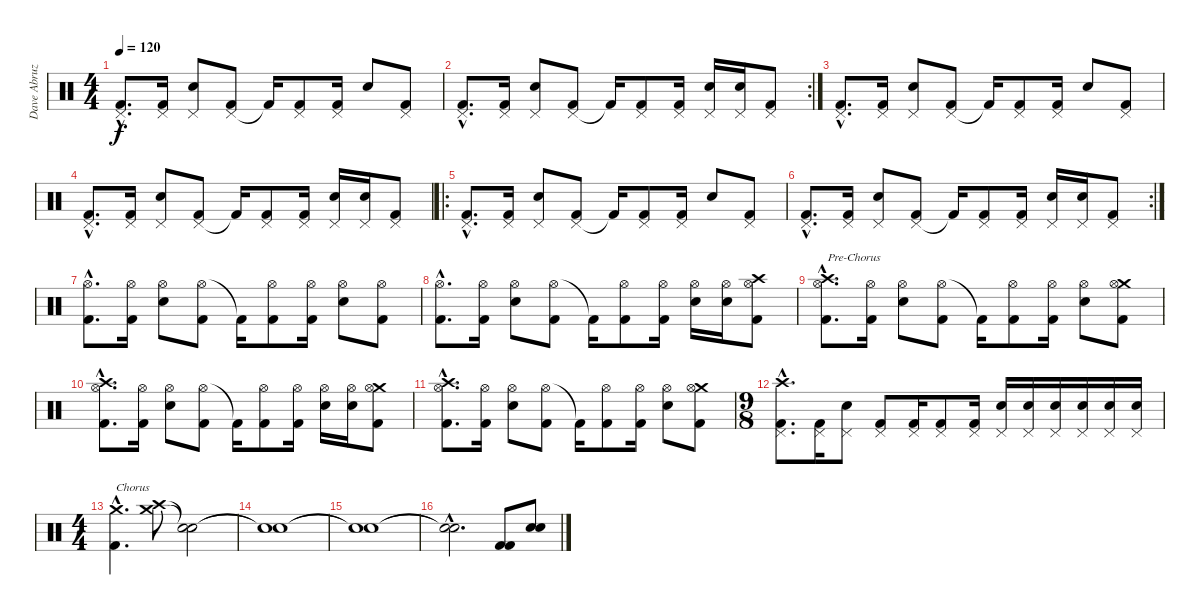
\track ("Dave Abruzzesse" "Dave Abruz") {instrument percussion}
\staff {score}
\articulation defaults
\ts (4 4)
\tempo 120
\clef neutral
\ks c
("Pedal Hi-Hat (hit)"{hac} "Kick (hit) 2"{hac}).8{d dy f} ("Pedal Hi-Hat (hit)" "Kick (hit) 2").16 ("Pedal Hi-Hat (hit)" "Snare (hit) 2").8 ("Pedal Hi-Hat (hit)" "Kick (hit) 2").8 "Kick (hit) 2"{t}.16 ("Pedal Hi-Hat (hit)" "Kick (hit) 2").8 ("Pedal Hi-Hat (hit)" "Kick (hit) 2").16 "Snare (hit) 2".8 ("Pedal Hi-Hat (hit)" "Kick (hit) 2").8 |
\rc 2
("Pedal Hi-Hat (hit)"{hac} "Kick (hit) 2"{hac}).8{d} ("Pedal Hi-Hat (hit)" "Kick (hit) 2").16 ("Pedal Hi-Hat (hit)" "Snare (hit) 2").8 ("Pedal Hi-Hat (hit)" "Kick (hit) 2").8 "Kick (hit) 2"{t}.16 ("Pedal Hi-Hat (hit)" "Kick (hit) 2").8 ("Pedal Hi-Hat (hit)" "Kick (hit) 2").16 ("Pedal Hi-Hat (hit)" "Snare (hit) 2").16 ("Pedal Hi-Hat (hit)" "Snare (hit) 2").16 ("Pedal Hi-Hat (hit)" "Kick (hit) 2").8 |
("Pedal Hi-Hat (hit)"{hac} "Kick (hit) 2"{hac}).8{d} ("Pedal Hi-Hat (hit)" "Kick (hit) 2").16 ("Pedal Hi-Hat (hit)" "Snare (hit) 2").8 ("Pedal Hi-Hat (hit)" "Kick (hit) 2").8 "Kick (hit) 2"{t}.16 ("Pedal Hi-Hat (hit)" "Kick (hit) 2").8 ("Pedal Hi-Hat (hit)" "Kick (hit) 2").16 "Snare (hit) 2".8 ("Pedal Hi-Hat (hit)" "Kick (hit) 2").8 |
("Pedal Hi-Hat (hit)"{hac} "Kick (hit) 2"{hac}).8{d} ("Pedal Hi-Hat (hit)" "Kick (hit) 2").16 ("Pedal Hi-Hat (hit)" "Snare (hit) 2").8 ("Pedal Hi-Hat (hit)" "Kick (hit) 2").8 "Kick (hit) 2"{t}.16 ("Pedal Hi-Hat (hit)" "Kick (hit) 2").8 ("Pedal Hi-Hat (hit)" "Kick (hit) 2").16 ("Pedal Hi-Hat (hit)" "Snare (hit) 2").16 ("Pedal Hi-Hat (hit)" "Snare (hit) 2").16 ("Pedal Hi-Hat (hit)" "Kick (hit) 2").8 |
\ro
("Pedal Hi-Hat (hit)"{hac} "Kick (hit) 2"{hac}).8{d} ("Pedal Hi-Hat (hit)" "Kick (hit) 2").16 ("Pedal Hi-Hat (hit)" "Snare (hit) 2").8 ("Pedal Hi-Hat (hit)" "Kick (hit) 2").8 "Kick (hit) 2"{t}.16 ("Pedal Hi-Hat (hit)" "Kick (hit) 2").8 ("Pedal Hi-Hat (hit)" "Kick (hit) 2").16 "Snare (hit) 2".8 ("Pedal Hi-Hat (hit)" "Kick (hit) 2").8 |
\rc 2
("Pedal Hi-Hat (hit)"{hac} "Kick (hit) 2"{hac}).8{d} ("Pedal Hi-Hat (hit)" "Kick (hit) 2").16 ("Pedal Hi-Hat (hit)" "Snare (hit) 2").8 ("Pedal Hi-Hat (hit)" "Kick (hit) 2").8 "Kick (hit) 2"{t}.16 ("Pedal Hi-Hat (hit)" "Kick (hit) 2").8 ("Pedal Hi-Hat (hit)" "Kick (hit) 2").16 ("Pedal Hi-Hat (hit)" "Snare (hit) 2").16 ("Pedal Hi-Hat (hit)" "Snare (hit) 2").16 ("Pedal Hi-Hat (hit)" "Kick (hit) 2").8 |
("Hi-Hat (open)"{hac} "Kick (hit) 2"{hac}).8{d} ("Hi-Hat (open)" "Kick (hit) 2").16 ("Hi-Hat (open)" "Snare (hit) 2").8 ("Hi-Hat (open)" "Kick (hit) 2").8 "Kick (hit) 2"{t}.16 ("Hi-Hat (open)" "Kick (hit) 2").8 ("Hi-Hat (open)" "Kick (hit) 2").16 ("Hi-Hat (open)" "Snare (hit) 2").8 ("Hi-Hat (open)" "Kick (hit) 2").8 |
("Hi-Hat (open)"{hac} "Kick (hit) 2"{hac}).8{d} ("Hi-Hat (open)" "Kick (hit) 2").16 ("Hi-Hat (open)" "Snare (hit) 2").8 ("Hi-Hat (open)" "Kick (hit) 2").8 "Kick (hit) 2"{t}.16 ("Hi-Hat (open)" "Kick (hit) 2").8 ("Hi-Hat (open)" "Kick (hit) 2").16 ("Hi-Hat (open)" "Snare (hit) 2").16 ("Hi-Hat (open)" "Snare (hit) 2").16 ("Crash high (hit)" "Hi-Hat (open)" "Kick (hit) 2").8 |
("Crash high (hit)"{hac} "Hi-Hat (open)"{hac} "Kick (hit) 2"{hac}).8{d txt "Pre-Chorus"} ("Hi-Hat (open)" "Kick (hit) 2").16 ("Hi-Hat (open)" "Snare (hit) 2").8 ("Hi-Hat (open)" "Kick (hit) 2").8 "Kick (hit) 2"{t}.16 ("Hi-Hat (open)" "Kick (hit) 2").8 ("Hi-Hat (open)" "Kick (hit) 2").16 ("Hi-Hat (open)" "Snare (hit) 2").8 ("Crash medium (hit)" "Hi-Hat (open)" "Kick (hit) 2").8 |
("Crash high (hit)"{hac} "Hi-Hat (open)"{hac} "Kick (hit) 2"{hac}).8{d} ("Hi-Hat (open)" "Kick (hit) 2").16 ("Hi-Hat (open)" "Snare (hit) 2").8 ("Hi-Hat (open)" "Kick (hit) 2").8 "Kick (hit) 2"{t}.16 ("Hi-Hat (open)" "Kick (hit) 2").8 ("Hi-Hat (open)" "Kick (hit) 2").16 ("Hi-Hat (open)" "Snare (hit) 2").16 ("Hi-Hat (open)" "Snare (hit) 2").16 ("Crash medium (hit)" "Hi-Hat (open)" "Kick (hit) 2").8 |
("Crash high (hit)"{hac} "Hi-Hat (open)"{hac} "Kick (hit) 2"{hac}).8{d} ("Hi-Hat (open)" "Kick (hit) 2").16 ("Hi-Hat (open)" "Snare (hit) 2").8 ("Hi-Hat (open)" "Kick (hit) 2").8 "Kick (hit) 2"{t}.16 ("Hi-Hat (open)" "Kick (hit) 2").8 ("Hi-Hat (open)" "Kick (hit) 2").16 ("Hi-Hat (open)" "Snare (hit) 2").8 ("Crash medium (hit)" "Hi-Hat (open)" "Kick (hit) 2").8 |
\ts (9 8)
("Crash high (hit)"{hac} "Pedal Hi-Hat (hit)"{hac} "Kick (hit) 2"{hac}).8{d} ("Pedal Hi-Hat (hit)" "Kick (hit) 2").16 ("Pedal Hi-Hat (hit)" "Snare (hit) 2").8 ("Pedal Hi-Hat (hit)" "Kick (hit) 2").8 ("Pedal Hi-Hat (hit)" "Kick (hit) 2").16 ("Pedal Hi-Hat (hit)" "Kick (hit) 2").8 ("Pedal Hi-Hat (hit)" "Kick (hit) 2").16 ("Pedal Hi-Hat (hit)" "Snare (hit) 2").16 ("Pedal Hi-Hat (hit)" "Snare (hit) 2").16 ("Pedal Hi-Hat (hit)" "Snare (hit) 2").16 ("Pedal Hi-Hat (hit)" "Snare (hit) 2").16 ("Pedal Hi-Hat (hit)" "Snare (hit) 2").16 ("Pedal Hi-Hat (hit)" "Snare (hit) 2").16 |
\ts (4 4)
("Crash medium (hit)"{hac} "Kick (hit) 2"{hac}).4{d txt "Chorus"} ("Crash high (hit)" "Crash medium (hit)").8 ("Snare (hit)"{t} "Snare (hit)"{t}).2 |
("Snare (hit)"{t} "Snare (hit)"{t}).1 |
("Snare (hit)"{t} "Snare (hit)"{t}).1 |
("Snare (hit)"{hac t} "Snare (hit)"{hac t}).2{d} ("Kick (hit) 2" "Kick (hit) 2").8 ("Snare (hit) 2" "Snare (hit) 2").8
